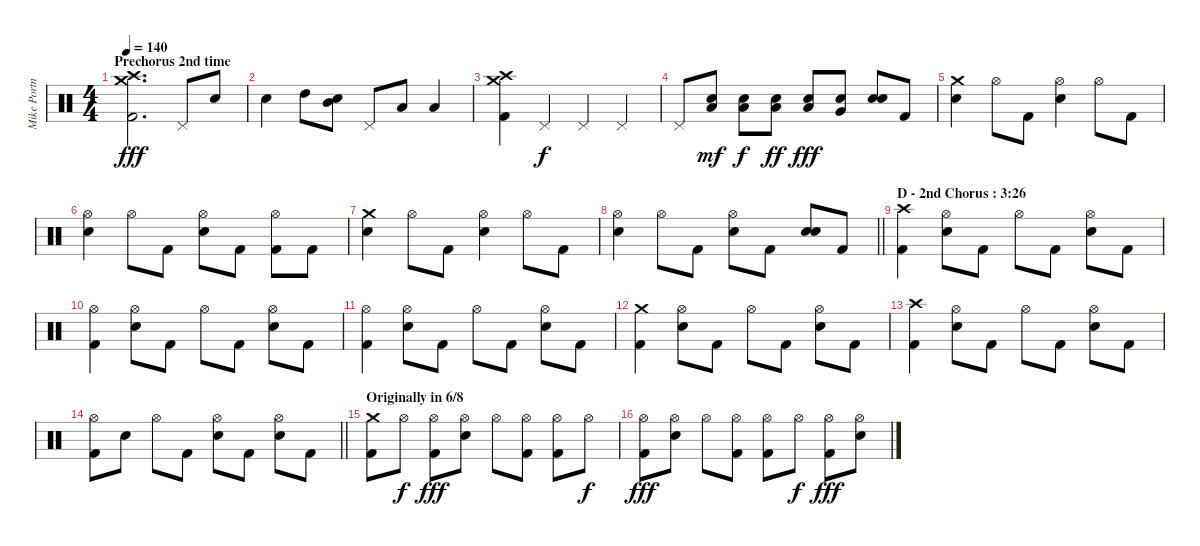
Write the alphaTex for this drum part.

\track ("Mike Portnoy" "Mike Portn") {instrument percussion}
\staff {score}
\articulation defaults
\ts (4 4)
\section ("" "Prechorus 2nd time")
\tempo 140
\clef neutral
\ks c
("Crash high (hit)" "Crash medium (hit)" "Kick (hit) 2").2{d dy fff} "Pedal Hi-Hat (hit)".8 "Snare (hit) 2".8 |
"Snare (hit) 2".4 "High Tom (hit)".8 ("Mid Tom (hit)" "Snare (hit) 2").8 "Pedal Hi-Hat (hit)".8 "Low Tom (hit)".8 "Low Tom (hit)".4 |
("Crash high (hit)" "Crash medium (hit)" "Kick (hit) 2").4 "Pedal Hi-Hat (hit)".4{dy f} "Pedal Hi-Hat (hit)".4 "Pedal Hi-Hat (hit)".4 |
"Pedal Hi-Hat (hit)".8 ("Low Tom (hit)" "Snare (hit) 2").8{dy mf} ("Low Tom (hit)" "Snare (hit) 2").8{dy f} ("Low Tom (hit)" "Snare (hit) 2").8{dy ff} ("Low Tom (hit)" "Snare (hit) 2").8{dy fff} ("Very Low Tom (hit)" "Snare (hit) 2").8 ("Snare (hit) 2" "Snare (hit) 2").8 "Kick (hit) 2".8 |
("Crash medium (hit)" "Snare (hit) 2").4 "Hi-Hat (open)".8 "Kick (hit) 2".8 ("Hi-Hat (open)" "Snare (hit) 2").4 "Hi-Hat (open)".8 "Kick (hit) 2".8 |
("Hi-Hat (open)" "Snare (hit) 2").4 "Hi-Hat (open)".8 "Kick (hit) 2".8 ("Hi-Hat (open)" "Snare (hit) 2").8 "Kick (hit) 2".8 ("Hi-Hat (open)" "Kick (hit) 2").8 "Kick (hit) 2".8 |
("Crash medium (hit)" "Snare (hit) 2").4 "Hi-Hat (open)".8 "Kick (hit) 2".8 ("Hi-Hat (open)" "Snare (hit) 2").4 "Hi-Hat (open)".8 "Kick (hit) 2".8 |
\barLineRight lightlight
("Hi-Hat (open)" "Snare (hit) 2").4 "Hi-Hat (open)".8 "Kick (hit) 2".8 ("Hi-Hat (open)" "Snare (hit) 2").8 "Kick (hit) 2".8 ("Snare (hit) 2" "Snare (hit) 2").8 "Kick (hit) 2".8 |
\section ("" "D - 2nd Chorus : 3:26")
("Crash high (hit)" "Kick (hit) 2").4 ("Hi-Hat (open)" "Snare (hit) 2").8 "Kick (hit) 2".8 "Hi-Hat (open)".8 "Kick (hit) 2".8 ("Hi-Hat (open)" "Snare (hit) 2").8 "Kick (hit) 2".8 |
("Hi-Hat (open)" "Kick (hit) 2").4 ("Hi-Hat (open)" "Snare (hit) 2").8 "Kick (hit) 2".8 "Hi-Hat (open)".8 "Kick (hit) 2".8 ("Hi-Hat (open)" "Snare (hit) 2").8 "Kick (hit) 2".8 |
("Hi-Hat (open)" "Kick (hit) 2").4 ("Hi-Hat (open)" "Snare (hit) 2").8 "Kick (hit) 2".8 "Hi-Hat (open)".8 "Kick (hit) 2".8 ("Hi-Hat (open)" "Snare (hit) 2").8 "Kick (hit) 2".8 |
("Crash medium (hit)" "Kick (hit) 2").4 ("Hi-Hat (open)" "Snare (hit) 2").8 "Kick (hit) 2".8 "Hi-Hat (open)".8 "Kick (hit) 2".8 ("Hi-Hat (open)" "Snare (hit) 2").8 "Kick (hit) 2".8 |
("Crash high (hit)" "Kick (hit) 2").4 ("Hi-Hat (open)" "Snare (hit) 2").8 "Kick (hit) 2".8 "Hi-Hat (open)".8 "Kick (hit) 2".8 ("Hi-Hat (open)" "Snare (hit) 2").8 "Kick (hit) 2".8 |
\barLineRight lightlight
("Hi-Hat (open)" "Kick (hit) 2").8 "Snare (hit) 2".8 "Hi-Hat (open)".8 "Kick (hit) 2".8 ("Hi-Hat (open)" "Snare (hit) 2").8 "Kick (hit) 2".8 ("Hi-Hat (open)" "Snare (hit) 2").8 "Kick (hit) 2".8 |
\section ("" "Originally in 6/8")
("Crash medium (hit)" "Kick (hit) 2").8 "Hi-Hat (open)".8{dy f} ("Hi-Hat (open)" "Kick (hit) 2").8{dy fff} ("Hi-Hat (open)" "Snare (hit) 2").8 "Hi-Hat (open)".8 ("Hi-Hat (open)" "Kick (hit) 2").8 ("Hi-Hat (open)" "Kick (hit) 2").8 "Hi-Hat (open)".8{dy f} |
("Hi-Hat (open)" "Kick (hit) 2").8{dy fff} ("Hi-Hat (open)" "Snare (hit) 2").8 "Hi-Hat (open)".8 ("Hi-Hat (open)" "Kick (hit) 2").8 ("Hi-Hat (open)" "Kick (hit) 2").8 "Hi-Hat (open)".8{dy f} ("Hi-Hat (open)" "Kick (hit) 2").8{dy fff} ("Hi-Hat (open)" "Snare (hit) 2").8
